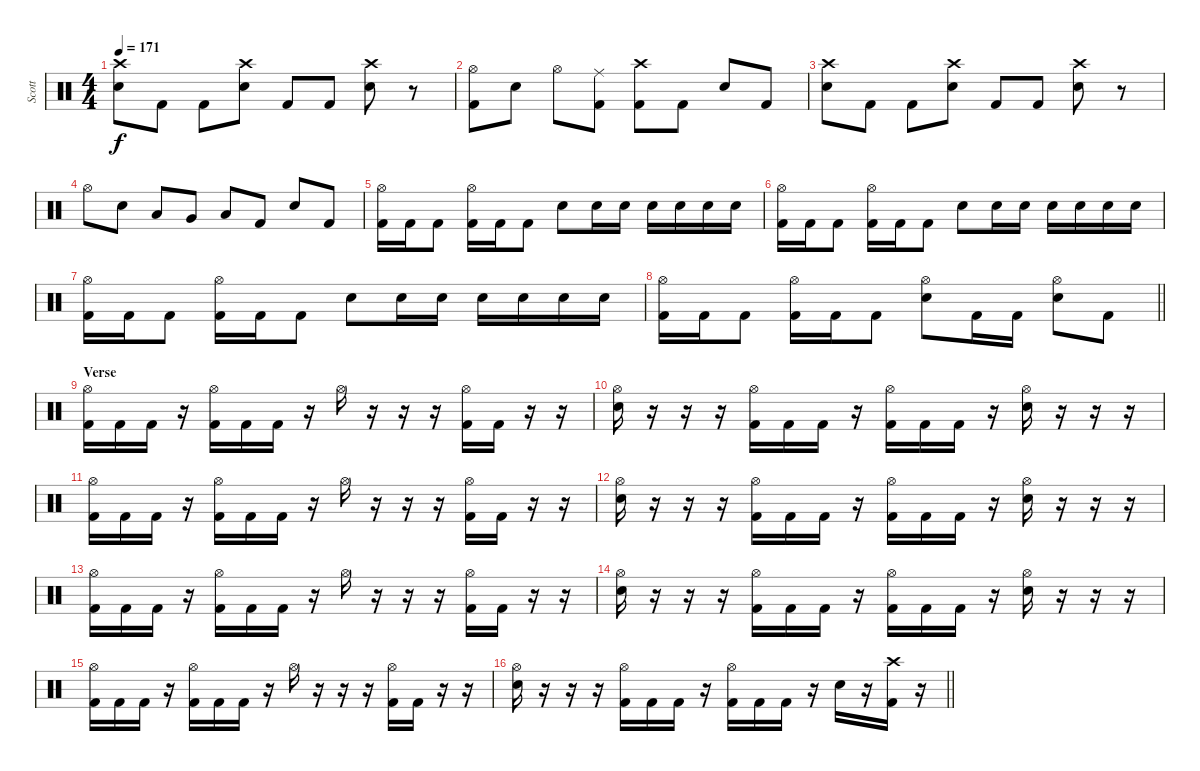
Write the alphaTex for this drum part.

\track ("Scott" "Scott") {instrument percussion}
\staff {score}
\articulation defaults
\ts (4 4)
\tempo 171
\clef neutral
\ks c
("Crash high (hit)" "Electric Snare (hit)").8{dy f} "Kick (hit) 2".8 "Kick (hit) 2".8 ("Crash high (hit)" "Electric Snare (hit)").8 "Kick (hit) 2".8 "Kick (hit) 2".8 ("Crash high (hit)" "Electric Snare (hit)").8 r.8 |
("Hi-Hat (open)" "Kick (hit) 2").8 "Electric Snare (hit)".8 "Hi-Hat (open)".8 ("Ride (middle)" "Kick (hit) 2").8 ("Crash high (hit)" "Kick (hit) 2").8 "Kick (hit) 2".8 "Electric Snare (hit)".8 "Kick (hit) 2".8 |
("Crash high (hit)" "Electric Snare (hit)").8 "Kick (hit) 2".8 "Kick (hit) 2".8 ("Crash high (hit)" "Electric Snare (hit)").8 "Kick (hit) 2".8 "Kick (hit) 2".8 ("Crash high (hit)" "Electric Snare (hit)").8 r.8 |
"Hi-Hat (open)".8 "Electric Snare (hit)".8 "Low Tom (hit)".8 "Very Low Tom (hit)".8 "Low Floor Tom (hit)".8 "Kick (hit) 2".8 "Electric Snare (hit)".8 "Kick (hit) 2".8 |
("Hi-Hat (open)" "Kick (hit) 2").16 "Kick (hit) 2".16 "Kick (hit) 2".8 ("Hi-Hat (open)" "Kick (hit) 2").16 "Kick (hit) 2".16 "Kick (hit) 2".8 "Electric Snare (hit)".8 "Electric Snare (hit)".16 "Electric Snare (hit)".16 "Electric Snare (hit)".16 "Electric Snare (hit)".16 "Electric Snare (hit)".16 "Electric Snare (hit)".16 |
("Hi-Hat (open)" "Kick (hit) 2").16 "Kick (hit) 2".16 "Kick (hit) 2".8 ("Hi-Hat (open)" "Kick (hit) 2").16 "Kick (hit) 2".16 "Kick (hit) 2".8 "Electric Snare (hit)".8 "Electric Snare (hit)".16 "Electric Snare (hit)".16 "Electric Snare (hit)".16 "Electric Snare (hit)".16 "Electric Snare (hit)".16 "Electric Snare (hit)".16 |
("Hi-Hat (open)" "Kick (hit) 2").16 "Kick (hit) 2".16 "Kick (hit) 2".8 ("Hi-Hat (open)" "Kick (hit) 2").16 "Kick (hit) 2".16 "Kick (hit) 2".8 "Electric Snare (hit)".8 "Electric Snare (hit)".16 "Electric Snare (hit)".16 "Electric Snare (hit)".16 "Electric Snare (hit)".16 "Electric Snare (hit)".16 "Electric Snare (hit)".16 |
\barLineRight lightlight
("Hi-Hat (open)" "Kick (hit) 2").16 "Kick (hit) 2".16 "Kick (hit) 2".8 ("Hi-Hat (open)" "Kick (hit) 2").16 "Kick (hit) 2".16 "Kick (hit) 2".8 ("Hi-Hat (open)" "Electric Snare (hit)").8 "Kick (hit) 2".16 "Kick (hit) 2".16 ("Hi-Hat (open)" "Electric Snare (hit)").8 "Kick (hit) 2".8 |
\section ("" "Verse")
("Hi-Hat (open)" "Kick (hit) 2").16 "Kick (hit) 2".16 "Kick (hit) 2".16 r.16 ("Hi-Hat (open)" "Kick (hit) 2").16 "Kick (hit) 2".16 "Kick (hit) 2".16 r.16 "Hi-Hat (open)".16 r.16 r.16 r.16 ("Hi-Hat (open)" "Kick (hit) 2").16 "Kick (hit) 2".16 r.16 r.16 |
("Hi-Hat (open)" "Electric Snare (hit)").16 r.16 r.16 r.16 ("Hi-Hat (open)" "Kick (hit) 2").16 "Kick (hit) 2".16 "Kick (hit) 2".16 r.16 ("Hi-Hat (open)" "Kick (hit) 2").16 "Kick (hit) 2".16 "Kick (hit) 2".16 r.16 ("Hi-Hat (open)" "Electric Snare (hit)").16 r.16 r.16 r.16 |
("Hi-Hat (open)" "Kick (hit) 2").16 "Kick (hit) 2".16 "Kick (hit) 2".16 r.16 ("Hi-Hat (open)" "Kick (hit) 2").16 "Kick (hit) 2".16 "Kick (hit) 2".16 r.16 "Hi-Hat (open)".16 r.16 r.16 r.16 ("Hi-Hat (open)" "Kick (hit) 2").16 "Kick (hit) 2".16 r.16 r.16 |
("Hi-Hat (open)" "Electric Snare (hit)").16 r.16 r.16 r.16 ("Hi-Hat (open)" "Kick (hit) 2").16 "Kick (hit) 2".16 "Kick (hit) 2".16 r.16 ("Hi-Hat (open)" "Kick (hit) 2").16 "Kick (hit) 2".16 "Kick (hit) 2".16 r.16 ("Hi-Hat (open)" "Electric Snare (hit)").16 r.16 r.16 r.16 |
("Hi-Hat (open)" "Kick (hit) 2").16 "Kick (hit) 2".16 "Kick (hit) 2".16 r.16 ("Hi-Hat (open)" "Kick (hit) 2").16 "Kick (hit) 2".16 "Kick (hit) 2".16 r.16 "Hi-Hat (open)".16 r.16 r.16 r.16 ("Hi-Hat (open)" "Kick (hit) 2").16 "Kick (hit) 2".16 r.16 r.16 |
("Hi-Hat (open)" "Electric Snare (hit)").16 r.16 r.16 r.16 ("Hi-Hat (open)" "Kick (hit) 2").16 "Kick (hit) 2".16 "Kick (hit) 2".16 r.16 ("Hi-Hat (open)" "Kick (hit) 2").16 "Kick (hit) 2".16 "Kick (hit) 2".16 r.16 ("Hi-Hat (open)" "Electric Snare (hit)").16 r.16 r.16 r.16 |
("Hi-Hat (open)" "Kick (hit) 2").16 "Kick (hit) 2".16 "Kick (hit) 2".16 r.16 ("Hi-Hat (open)" "Kick (hit) 2").16 "Kick (hit) 2".16 "Kick (hit) 2".16 r.16 "Hi-Hat (open)".16 r.16 r.16 r.16 ("Hi-Hat (open)" "Kick (hit) 2").16 "Kick (hit) 2".16 r.16 r.16 |
\barLineRight lightlight
("Hi-Hat (open)" "Electric Snare (hit)").16 r.16 r.16 r.16 ("Hi-Hat (open)" "Kick (hit) 2").16 "Kick (hit) 2".16 "Kick (hit) 2".16 r.16 ("Hi-Hat (open)" "Kick (hit) 2").16 "Kick (hit) 2".16 "Kick (hit) 2".16 r.16 "Electric Snare (hit)".16 r.16 ("Crash high (hit)" "Kick (hit) 2").16 r.16
